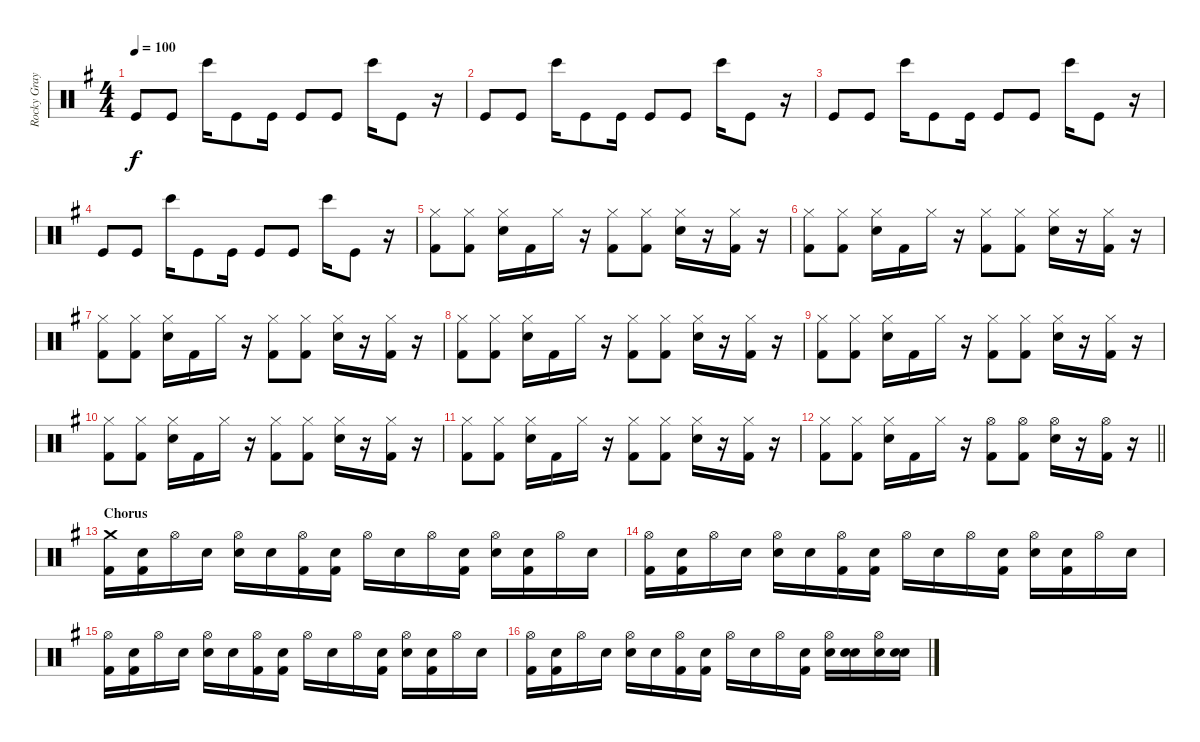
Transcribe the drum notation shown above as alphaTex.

\track ("Rocky Gray" "Rocky Gray") {instrument percussion}
\staff {score}
\articulation defaults
\ts (4 4)
\tempo 100
\clef neutral
\ks g "Kick (hit)".8{dy f} "Kick (hit)".8 "Bongo High (hit)".16 "Kick (hit)".8 "Kick (hit)".16 "Kick (hit)".8 "Kick (hit)".8 "Bongo High (hit)".16 "Kick (hit)".8
r.16 |
"Kick (hit)".8 "Kick (hit)".8 "Bongo High (hit)".16 "Kick (hit)".8 "Kick (hit)".16 "Kick (hit)".8 "Kick (hit)".8 "Bongo High (hit)".16 "Kick (hit)".8 r.16 |
"Kick (hit)".8 "Kick (hit)".8 "Bongo High (hit)".16 "Kick (hit)".8 "Kick (hit)".16 "Kick (hit)".8 "Kick (hit)".8 "Bongo High (hit)".16 "Kick (hit)".8 r.16 |
"Kick (hit)".8 "Kick (hit)".8 "Bongo High (hit)".16 "Kick (hit)".8 "Kick (hit)".16 "Kick (hit)".8 "Kick (hit)".8 "Bongo High (hit)".16 "Kick (hit)".8 r.16 |
("Hi-Hat (closed)" "Kick (hit) 2").8 ("Hi-Hat (closed)" "Kick (hit) 2").8 ("Hi-Hat (closed)" "Snare (hit) 2").16 "Kick (hit) 2".16 "Hi-Hat (closed)".16 r.16 ("Hi-Hat (closed)" "Kick (hit) 2").8 ("Hi-Hat (closed)" "Kick (hit) 2").8 ("Hi-Hat (closed)" "Snare (hit) 2").16 r.16 ("Hi-Hat (closed)" "Kick (hit) 2").16 r.16 |
("Hi-Hat (closed)" "Kick (hit) 2").8 ("Hi-Hat (closed)" "Kick (hit) 2").8 ("Hi-Hat (closed)" "Snare (hit) 2").16 "Kick (hit) 2".16 "Hi-Hat (closed)".16 r.16 ("Hi-Hat (closed)" "Kick (hit) 2").8 ("Hi-Hat (closed)" "Kick (hit) 2").8 ("Hi-Hat (closed)" "Snare (hit) 2").16 r.16 ("Hi-Hat (closed)" "Kick (hit) 2").16 r.16 |
("Hi-Hat (closed)" "Kick (hit) 2").8 ("Hi-Hat (closed)" "Kick (hit) 2").8 ("Hi-Hat (closed)" "Snare (hit) 2").16 "Kick (hit) 2".16 "Hi-Hat (closed)".16 r.16 ("Hi-Hat (closed)" "Kick (hit) 2").8 ("Hi-Hat (closed)" "Kick (hit) 2").8 ("Hi-Hat (closed)" "Snare (hit) 2").16 r.16 ("Hi-Hat (closed)" "Kick (hit) 2").16 r.16 |
("Hi-Hat (closed)" "Kick (hit) 2").8 ("Hi-Hat (closed)" "Kick (hit) 2").8 ("Hi-Hat (closed)" "Snare (hit) 2").16 "Kick (hit) 2".16 "Hi-Hat (closed)".16 r.16 ("Hi-Hat (closed)" "Kick (hit) 2").8 ("Hi-Hat (closed)" "Kick (hit) 2").8 ("Hi-Hat (closed)" "Snare (hit) 2").16 r.16 ("Hi-Hat (closed)" "Kick (hit) 2").16 r.16 |
("Hi-Hat (closed)" "Kick (hit) 2").8 ("Hi-Hat (closed)" "Kick (hit) 2").8 ("Hi-Hat (closed)" "Snare (hit) 2").16 "Kick (hit) 2".16 "Hi-Hat (closed)".16 r.16 ("Hi-Hat (closed)" "Kick (hit) 2").8 ("Hi-Hat (closed)" "Kick (hit) 2").8 ("Hi-Hat (closed)" "Snare (hit) 2").16 r.16 ("Hi-Hat (closed)" "Kick (hit) 2").16 r.16 |
("Hi-Hat (closed)" "Kick (hit) 2").8 ("Hi-Hat (closed)" "Kick (hit) 2").8 ("Hi-Hat (closed)" "Snare (hit) 2").16 "Kick (hit) 2".16 "Hi-Hat (closed)".16 r.16 ("Hi-Hat (closed)" "Kick (hit) 2").8 ("Hi-Hat (closed)" "Kick (hit) 2").8 ("Hi-Hat (closed)" "Snare (hit) 2").16 r.16 ("Hi-Hat (closed)" "Kick (hit) 2").16 r.16 |
("Hi-Hat (closed)" "Kick (hit) 2").8 ("Hi-Hat (closed)" "Kick (hit) 2").8 ("Hi-Hat (closed)" "Snare (hit) 2").16 "Kick (hit) 2".16 "Hi-Hat (closed)".16 r.16 ("Hi-Hat (closed)" "Kick (hit) 2").8 ("Hi-Hat (closed)" "Kick (hit) 2").8 ("Hi-Hat (closed)" "Snare (hit) 2").16 r.16 ("Hi-Hat (closed)" "Kick (hit) 2").16 r.16 |
\barLineRight lightlight
("Hi-Hat (closed)" "Kick (hit) 2").8 ("Hi-Hat (closed)" "Kick (hit) 2").8 ("Hi-Hat (closed)" "Snare (hit) 2").16 "Kick (hit) 2".16 "Hi-Hat (closed)".16 r.16 ("Hi-Hat (open)" "Kick (hit) 2").8 ("Hi-Hat (open)" "Kick (hit) 2").8 ("Hi-Hat (open)" "Snare (hit) 2").16 r.16 ("Hi-Hat (open)" "Kick (hit) 2").16 r.16 |
\section ("" "Chorus")
("Crash medium (hit)" "Kick (hit) 2").16 ("Snare (hit)" "Kick (hit) 2").16 "Hi-Hat (open)".16 "Snare (hit)".16 ("Hi-Hat (open)" "Snare (hit) 2").16 "Snare (hit)".16 ("Hi-Hat (open)" "Kick (hit) 2").16 ("Snare (hit)" "Kick (hit) 2").16 "Hi-Hat (open)".16 "Snare (hit)".16 "Hi-Hat (open)".16 ("Snare (hit)" "Kick (hit) 2").16 ("Hi-Hat (open)" "Snare (hit) 2").16 ("Snare (hit)" "Kick (hit) 2").16 "Hi-Hat (open)".16 "Snare (hit)".16 |
("Hi-Hat (open)" "Kick (hit) 2").16 ("Snare (hit)" "Kick (hit) 2").16 "Hi-Hat (open)".16 "Snare (hit)".16 ("Hi-Hat (open)" "Snare (hit) 2").16 "Snare (hit)".16 ("Hi-Hat (open)" "Kick (hit) 2").16 ("Snare (hit)" "Kick (hit) 2").16 "Hi-Hat (open)".16 "Snare (hit)".16 "Hi-Hat (open)".16 ("Snare (hit)" "Kick (hit) 2").16 ("Hi-Hat (open)" "Snare (hit) 2").16 ("Snare (hit)" "Kick (hit) 2").16 "Hi-Hat (open)".16 "Snare (hit)".16 |
("Hi-Hat (open)" "Kick (hit) 2").16 ("Snare (hit)" "Kick (hit) 2").16 "Hi-Hat (open)".16 "Snare (hit)".16 ("Hi-Hat (open)" "Snare (hit) 2").16 "Snare (hit)".16 ("Hi-Hat (open)" "Kick (hit) 2").16 ("Snare (hit)" "Kick (hit) 2").16 "Hi-Hat (open)".16 "Snare (hit)".16 "Hi-Hat (open)".16 ("Snare (hit)" "Kick (hit) 2").16 ("Hi-Hat (open)" "Snare (hit) 2").16 ("Snare (hit)" "Kick (hit) 2").16 "Hi-Hat (open)".16 "Snare (hit)".16 |
("Hi-Hat (open)" "Kick (hit) 2").16 ("Snare (hit)" "Kick (hit) 2").16 "Hi-Hat (open)".16 "Snare (hit)".16 ("Hi-Hat (open)" "Snare (hit) 2").16 "Snare (hit)".16 ("Hi-Hat (open)" "Kick (hit) 2").16 ("Snare (hit)" "Kick (hit) 2").16 "Hi-Hat (open)".16 "Snare (hit)".16 "Hi-Hat (open)".16 ("Snare (hit)" "Kick (hit) 2").16 ("Hi-Hat (open)" "Snare (hit) 2").16 ("Snare (hit)" "Snare (hit) 2").16 ("Hi-Hat (open)" "Snare (hit) 2").16 ("Snare (hit)" "Snare (hit) 2").16
